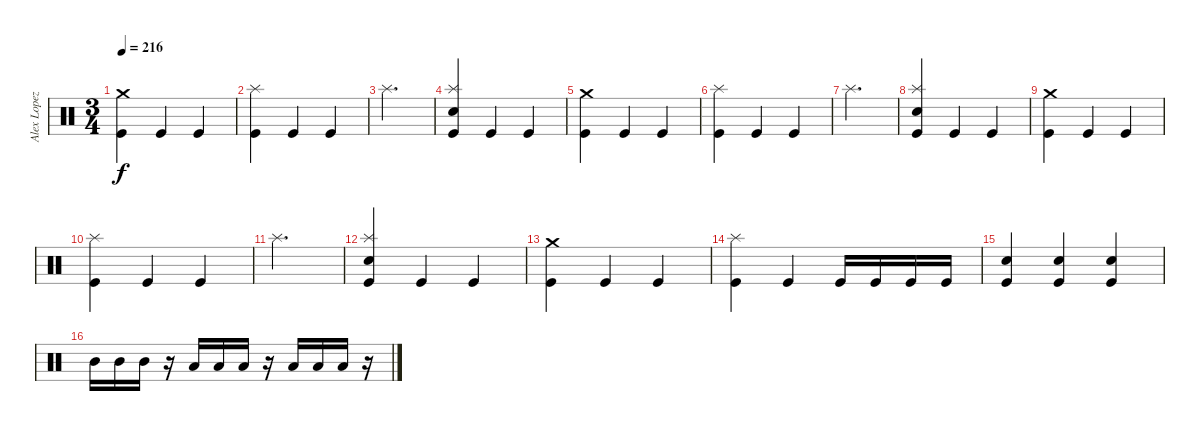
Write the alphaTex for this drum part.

\track ("Alex Lopez" "Alex Lopez") {instrument percussion}
\staff {score}
\articulation defaults
\ts (3 4)
\tempo 216
\clef neutral
\ks c
("Crash medium (hit)" "Kick (hit)").4{dy f} "Kick (hit)".4 "Kick (hit)".4 |
("Splash (hit)" "Kick (hit)").4 "Kick (hit)".4 "Kick (hit)".4 |
"Splash (hit)".2{d} |
("Splash (hit)" "Electric Snare (hit)" "Kick (hit)").4 "Kick (hit)".4 "Kick (hit)".4 |
("Crash medium (hit)" "Kick (hit)").4 "Kick (hit)".4 "Kick (hit)".4 |
("Splash (hit)" "Kick (hit)").4 "Kick (hit)".4 "Kick (hit)".4 |
"Splash (hit)".2{d} |
("Splash (hit)" "Electric Snare (hit)" "Kick (hit)").4 "Kick (hit)".4 "Kick (hit)".4 |
("Crash medium (hit)" "Kick (hit)").4 "Kick (hit)".4 "Kick (hit)".4 |
("Splash (hit)" "Kick (hit)").4 "Kick (hit)".4 "Kick (hit)".4 |
"Splash (hit)".2{d} |
("Splash (hit)" "Electric Snare (hit)" "Kick (hit)").4 "Kick (hit)".4 "Kick (hit)".4 |
("Crash medium (hit)" "Kick (hit)").4 "Kick (hit)".4 "Kick (hit)".4 |
("Splash (hit)" "Kick (hit)").4 "Kick (hit)".4 "Kick (hit)".16 "Kick (hit)".16 "Kick (hit)".16 "Kick (hit)".16 |
("Electric Snare (hit)" "Kick (hit)").4 ("Electric Snare (hit)" "Kick (hit)").4 ("Electric Snare (hit)" "Kick (hit)").4 |
"Mid Tom (hit)".16 "Mid Tom (hit)".16 "Mid Tom (hit)".16 r.16 "Low Tom (hit)".16 "Low Tom (hit)".16 "Low Tom (hit)".16 r.16 "Low Floor Tom (hit)".16 "Low Floor Tom (hit)".16 "Low Floor Tom (hit)".16 r.16
